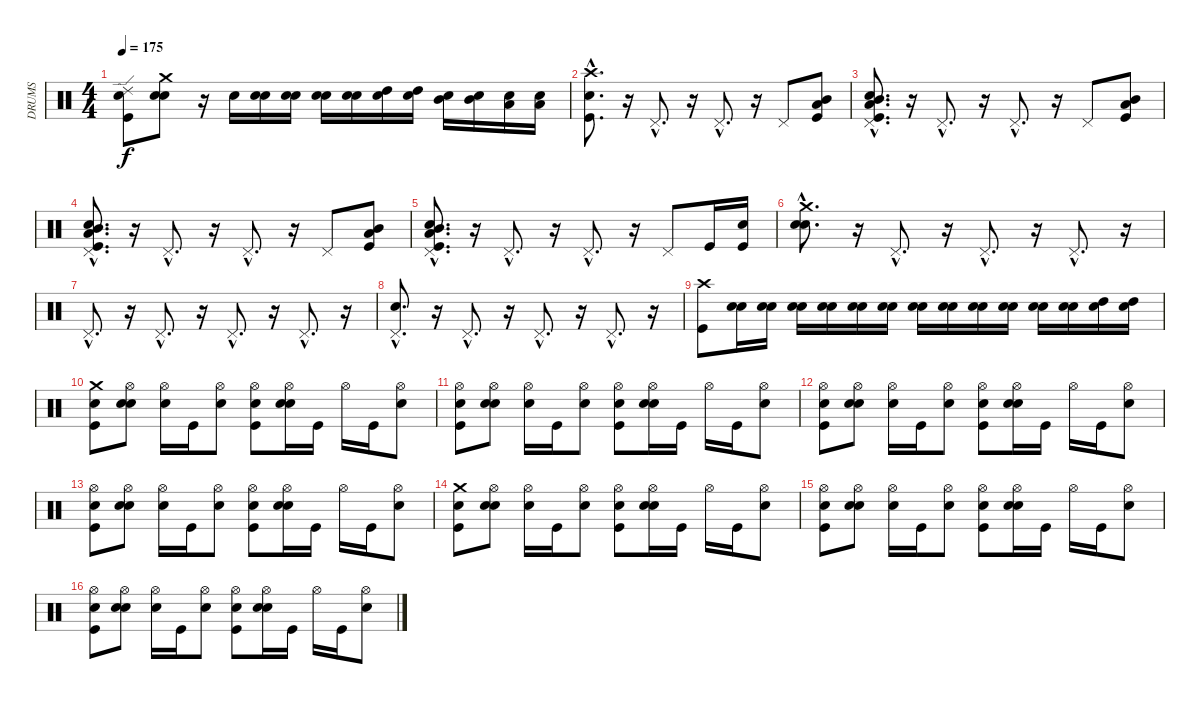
\track ("DRUMS" "DRUMS") {instrument percussion}
\staff {score}
\articulation defaults
\ts (4 4)
\tempo 175
\clef neutral
\ks c
("Snare (hit)" "Ride (edge) 2" "Kick (hit)").8{dy f} ("Snare (hit)" "Crash medium (hit)" "Snare (hit) 2").8 r.16 "Snare (hit) 2".16 ("Snare (hit)" "Snare (hit) 2").16 ("Snare (hit)" "Snare (hit) 2").16 ("Snare (hit)" "Snare (hit) 2").16 ("Snare (hit)" "Snare (hit) 2").16 ("Snare (hit)" "High Tom (hit)").16 ("Snare (hit)" "High Tom (hit)").16 ("Snare (hit)" "Mid Tom (hit)").16 ("Snare (hit)" "Mid Tom (hit)").16 ("Snare (hit)" "Low Tom (hit)").16 ("Snare (hit)" "Low Tom (hit)").16 |
("Snare (hit)"{hac} "Crash high (hit)"{hac} "Kick (hit)"{hac}).8{d} r.16 "Pedal Hi-Hat (hit)"{hac}.8{d} r.16 "Pedal Hi-Hat (hit)"{hac}.8{d} r.16 "Pedal Hi-Hat (hit)".8 ("Mid Tom (hit)" "Low Tom (hit)" "Kick (hit)").8 |
("Snare (hit)"{hac} "Mid Tom (hit)"{hac} "Low Tom (hit)"{hac} "Pedal Hi-Hat (hit)"{hac} "Kick (hit)"{hac}).8{d} r.16 "Pedal Hi-Hat (hit)"{hac}.8{d} r.16 "Pedal Hi-Hat (hit)"{hac}.8{d} r.16 "Pedal Hi-Hat (hit)".8 ("Mid Tom (hit)" "Low Tom (hit)" "Kick (hit)").8 |
("Snare (hit)"{hac} "Kick (hit)"{hac} "Pedal Hi-Hat (hit)"{hac} "Low Tom (hit)"{hac} "Mid Tom (hit)"{hac}).8{d} r.16 "Pedal Hi-Hat (hit)"{hac}.8{d} r.16 "Pedal Hi-Hat (hit)"{hac}.8{d} r.16 "Pedal Hi-Hat (hit)".8 ("Kick (hit)" "Low Tom (hit)" "Mid Tom (hit)").8 |
("Snare (hit)"{hac} "Kick (hit)"{hac} "Pedal Hi-Hat (hit)"{hac} "Low Tom (hit)"{hac} "Mid Tom (hit)"{hac}).8{d} r.16 "Pedal Hi-Hat (hit)"{hac}.8{d} r.16 "Pedal Hi-Hat (hit)"{hac}.8{d} r.16 "Pedal Hi-Hat (hit)".8 "Kick (hit)".16 ("Snare (hit)" "Kick (hit)").16 |
("Snare (hit)"{hac} "Crash medium (hit)"{hac} "Snare (hit) 2"{hac}).8{d} r.16 "Pedal Hi-Hat (hit)"{hac}.8{d} r.16 "Pedal Hi-Hat (hit)"{hac}.8{d} r.16 "Pedal Hi-Hat (hit)"{hac}.8{d} r.16 |
"Pedal Hi-Hat (hit)"{hac}.8{d} r.16 "Pedal Hi-Hat (hit)"{hac}.8{d} r.16 "Pedal Hi-Hat (hit)"{hac}.8{d} r.16 "Pedal Hi-Hat (hit)"{hac}.8{d} r.16 |
("Pedal Hi-Hat (hit)"{hac} "Electric Snare (hit)"{hac}).8{d} r.16 "Pedal Hi-Hat (hit)"{hac}.8{d} r.16 "Pedal Hi-Hat (hit)"{hac}.8{d} r.16 "Pedal Hi-Hat (hit)"{hac}.8{d} r.16 |
("Kick (hit)" "Crash high (hit)").8 ("Snare (hit)" "Snare (hit) 2").16 ("Snare (hit)" "Snare (hit) 2").16 ("Snare (hit)" "Snare (hit) 2").16 ("Snare (hit)" "Snare (hit) 2").16 ("Snare (hit)" "Snare (hit) 2").16 ("Snare (hit)" "Snare (hit) 2").16 ("Snare (hit)" "Snare (hit) 2").16 ("Snare (hit)" "Snare (hit) 2").16 ("Snare (hit)" "Snare (hit) 2").16 ("Snare (hit)" "Snare (hit) 2").16 ("Snare (hit)" "Snare (hit) 2").16 ("Snare (hit)" "Snare (hit) 2").16 ("Snare (hit)" "High Tom (hit)").16 ("Snare (hit)" "High Tom (hit)").16 |
("Snare (hit)" "Kick (hit)" "Crash medium (hit)").8 ("Snare (hit)" "Snare (hit) 2" "Hi-Hat (open)").8 ("Snare (hit)" "Hi-Hat (open)").16 "Kick (hit)".16 ("Snare (hit) 2" "Hi-Hat (open)").8 ("Snare (hit)" "Kick (hit)" "Hi-Hat (open)").8 ("Snare (hit)" "Snare (hit) 2" "Hi-Hat (open)").16 "Kick (hit)".16 "Hi-Hat (open)".16 "Kick (hit)".16 ("Snare (hit) 2" "Hi-Hat (open)").8 |
("Snare (hit)" "Kick (hit)" "Hi-Hat (open)").8 ("Snare (hit)" "Snare (hit) 2" "Hi-Hat (open)").8 ("Snare (hit)" "Hi-Hat (open)").16 "Kick (hit)".16 ("Snare (hit) 2" "Hi-Hat (open)").8 ("Snare (hit)" "Kick (hit)" "Hi-Hat (open)").8 ("Snare (hit)" "Snare (hit) 2" "Hi-Hat (open)").16 "Kick (hit)".16 "Hi-Hat (open)".16 "Kick (hit)".16 ("Snare (hit) 2" "Hi-Hat (open)").8 |
("Snare (hit)" "Kick (hit)" "Hi-Hat (open)").8 ("Snare (hit)" "Snare (hit) 2" "Hi-Hat (open)").8 ("Snare (hit)" "Hi-Hat (open)").16 "Kick (hit)".16 ("Snare (hit) 2" "Hi-Hat (open)").8 ("Snare (hit)" "Kick (hit)" "Hi-Hat (open)").8 ("Snare (hit)" "Snare (hit) 2" "Hi-Hat (open)").16 "Kick (hit)".16 "Hi-Hat (open)".16 "Kick (hit)".16 ("Snare (hit) 2" "Hi-Hat (open)").8 |
("Snare (hit)" "Kick (hit)" "Hi-Hat (open)").8 ("Snare (hit)" "Snare (hit) 2" "Hi-Hat (open)").8 ("Snare (hit)" "Hi-Hat (open)").16 "Kick (hit)".16 ("Snare (hit) 2" "Hi-Hat (open)").8 ("Snare (hit)" "Kick (hit)" "Hi-Hat (open)").8 ("Snare (hit)" "Snare (hit) 2" "Hi-Hat (open)").16 "Kick (hit)".16 "Hi-Hat (open)".16 "Kick (hit)".16 ("Snare (hit) 2" "Hi-Hat (open)").8 |
("Snare (hit)" "Crash medium (hit)" "Kick (hit)").8 ("Snare (hit)" "Hi-Hat (open)" "Snare (hit) 2").8 ("Snare (hit)" "Hi-Hat (open)").16 "Kick (hit)".16 ("Hi-Hat (open)" "Snare (hit) 2").8 ("Snare (hit)" "Hi-Hat (open)" "Kick (hit)").8 ("Snare (hit)" "Hi-Hat (open)" "Snare (hit) 2").16 "Kick (hit)".16 "Hi-Hat (open)".16 "Kick (hit)".16 ("Hi-Hat (open)" "Snare (hit) 2").8 |
("Snare (hit)" "Kick (hit)" "Hi-Hat (open)").8 ("Snare (hit)" "Snare (hit) 2" "Hi-Hat (open)").8 ("Snare (hit)" "Hi-Hat (open)").16 "Kick (hit)".16 ("Snare (hit) 2" "Hi-Hat (open)").8 ("Snare (hit)" "Kick (hit)" "Hi-Hat (open)").8 ("Snare (hit)" "Snare (hit) 2" "Hi-Hat (open)").16 "Kick (hit)".16 "Hi-Hat (open)".16 "Kick (hit)".16 ("Snare (hit) 2" "Hi-Hat (open)").8 |
("Snare (hit)" "Kick (hit)" "Hi-Hat (open)").8 ("Snare (hit)" "Snare (hit) 2" "Hi-Hat (open)").8 ("Snare (hit)" "Hi-Hat (open)").16 "Kick (hit)".16 ("Snare (hit) 2" "Hi-Hat (open)").8 ("Snare (hit)" "Kick (hit)" "Hi-Hat (open)").8 ("Snare (hit)" "Snare (hit) 2" "Hi-Hat (open)").16 "Kick (hit)".16 "Hi-Hat (open)".16 "Kick (hit)".16 ("Snare (hit) 2" "Hi-Hat (open)").8
